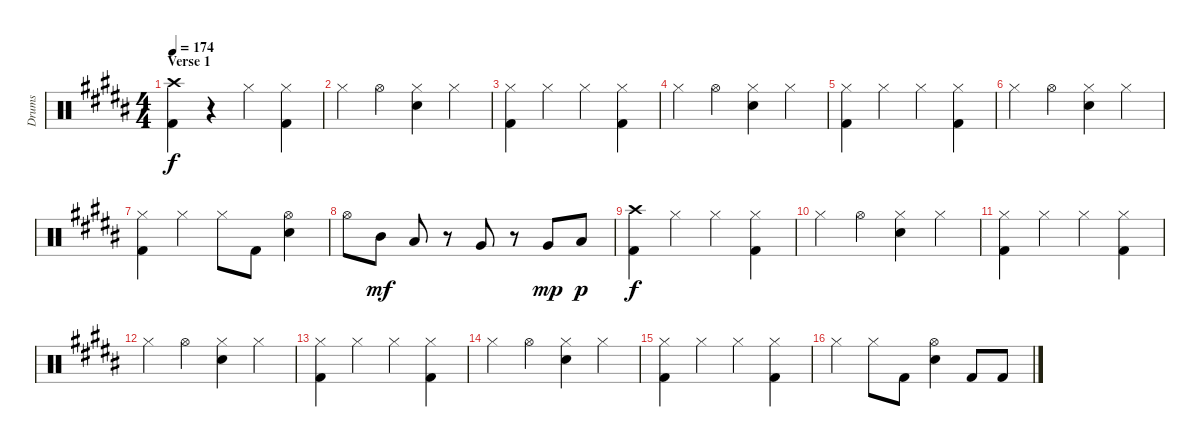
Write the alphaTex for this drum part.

\track ("Drums" "Drums") {instrument percussion}
\staff {score}
\articulation defaults
\ts (4 4)
\section ("" "Verse 1")
\tempo 174
\clef neutral
\ks g#minor
("Crash high (hit)" "Kick (hit) 2").4{dy f} r.4 "Hi-Hat (closed)".4 ("Hi-Hat (closed)" "Kick (hit) 2").4 |
"Hi-Hat (closed)".4 "Hi-Hat (open)".4 ("Hi-Hat (closed)" "Electric Snare (hit)").4 "Hi-Hat (closed)".4 |
("Hi-Hat (closed)" "Kick (hit) 2").4 "Hi-Hat (closed)".4 "Hi-Hat (closed)".4 ("Hi-Hat (closed)" "Kick (hit) 2").4 |
"Hi-Hat (closed)".4 "Hi-Hat (open)".4 ("Hi-Hat (closed)" "Electric Snare (hit)").4 "Hi-Hat (closed)".4 |
("Hi-Hat (closed)" "Kick (hit) 2").4 "Hi-Hat (closed)".4 "Hi-Hat (closed)".4 ("Hi-Hat (closed)" "Kick (hit) 2").4 |
"Hi-Hat (closed)".4 "Hi-Hat (open)".4 ("Hi-Hat (closed)" "Electric Snare (hit)").4 "Hi-Hat (closed)".4 |
("Hi-Hat (closed)" "Kick (hit) 2").4 "Hi-Hat (closed)".4 "Hi-Hat (closed)".8 "Kick (hit) 2".8 ("Hi-Hat (open)" "Electric Snare (hit)").4 |
"Hi-Hat (open)".8 "Mid Tom (hit)".8{dy mf} "Low Tom (hit)".8 r.8 "Very Low Tom (hit)".8 r.8 "Very Low Tom (hit)".8{dy mp} "Low Floor Tom (hit)".8{dy p} |
("Crash high (hit)" "Kick (hit) 2").4{dy f} "Hi-Hat (closed)".4 "Hi-Hat (closed)".4 ("Hi-Hat (closed)" "Kick (hit) 2").4 |
"Hi-Hat (closed)".4 "Hi-Hat (open)".4 ("Hi-Hat (closed)" "Electric Snare (hit)").4 "Hi-Hat (closed)".4 |
("Hi-Hat (closed)" "Kick (hit) 2").4 "Hi-Hat (closed)".4 "Hi-Hat (closed)".4 ("Hi-Hat (closed)" "Kick (hit) 2").4 |
"Hi-Hat (closed)".4 "Hi-Hat (open)".4 ("Hi-Hat (closed)" "Electric Snare (hit)").4 "Hi-Hat (closed)".4 |
("Hi-Hat (closed)" "Kick (hit) 2").4 "Hi-Hat (closed)".4 "Hi-Hat (closed)".4 ("Hi-Hat (closed)" "Kick (hit) 2").4 |
"Hi-Hat (closed)".4 "Hi-Hat (open)".4 ("Hi-Hat (closed)" "Electric Snare (hit)").4 "Hi-Hat (closed)".4 |
("Hi-Hat (closed)" "Kick (hit) 2").4 "Hi-Hat (closed)".4 "Hi-Hat (closed)".4 ("Hi-Hat (closed)" "Kick (hit) 2").4 |
"Hi-Hat (closed)".4 "Hi-Hat (closed)".8 "Kick (hit) 2".8 ("Hi-Hat (open)" "Electric Snare (hit)").4 "Kick (hit) 2".8 "Kick (hit) 2".8
